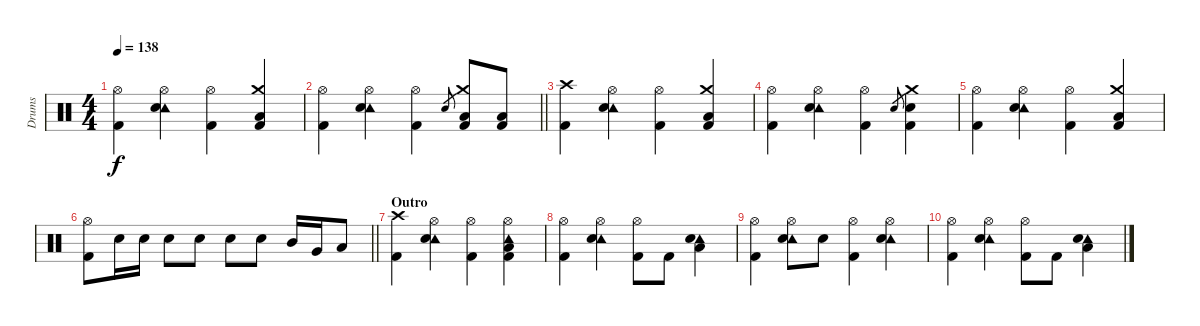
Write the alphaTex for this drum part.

\track ("Drums" "Drums") {instrument percussion}
\staff {score}
\articulation defaults
\ts (4 4)
\tempo 138
\clef neutral
\ks c
("Hi-Hat (open)" "Kick (hit) 2").4{dy f} ("Tambourine (hit)" "Hi-Hat (open)" "Snare (hit) 2").4 ("Hi-Hat (open)" "Kick (hit) 2").4 ("Crash medium (hit)" "Low Tom (hit)" "Kick (hit) 2").4 |
\barLineRight lightlight
("Hi-Hat (open)" "Kick (hit) 2").4 ("Tambourine (hit)" "Hi-Hat (open)" "Snare (hit) 2").4 ("Hi-Hat (open)" "Kick (hit) 2").4 "Snare (hit) 2".8{gr} ("Crash medium (hit)" "Low Tom (hit)" "Kick (hit) 2").8 ("Low Tom (hit)" "Kick (hit) 2").8 |
("Crash high (hit)" "Kick (hit) 2").4 ("Tambourine (hit)" "Hi-Hat (open)" "Snare (hit) 2").4 ("Hi-Hat (open)" "Kick (hit) 2").4 ("Crash medium (hit)" "Low Tom (hit)" "Kick (hit) 2").4 |
("Hi-Hat (open)" "Kick (hit) 2").4 ("Tambourine (hit)" "Hi-Hat (open)" "Snare (hit) 2").4 ("Hi-Hat (open)" "Kick (hit) 2").4 "Snare (hit) 2".8{gr} ("Crash medium (hit)" "Snare (hit) 2" "Kick (hit) 2").4 |
("Hi-Hat (open)" "Kick (hit) 2").4 ("Tambourine (hit)" "Hi-Hat (open)" "Snare (hit) 2").4 ("Hi-Hat (open)" "Kick (hit) 2").4 ("Crash medium (hit)" "Low Tom (hit)" "Kick (hit) 2").4 |
\barLineRight lightlight
("Hi-Hat (open)" "Kick (hit) 2").8 "Snare (hit) 2".16 "Snare (hit) 2".16 "Snare (hit) 2".8 "Snare (hit) 2".8 "Snare (hit) 2".8 "Snare (hit) 2".8 "Mid Tom (hit)".16 "Very Low Tom (hit)".16 "Low Tom (hit)".8 |
\section ("" "Outro")
("Crash high (hit)" "Kick (hit) 2").4{volume 2} ("Tambourine (hit)" "Hi-Hat (open)" "Snare (hit) 2").4 ("Hi-Hat (open)" "Kick (hit) 2").4 ("Tambourine (hit)" "Hi-Hat (open)" "Low Tom (hit)" "Kick (hit) 2").4 |
("Hi-Hat (open)" "Kick (hit) 2").4 ("Tambourine (hit)" "Hi-Hat (open)" "Snare (hit) 2").4 ("Hi-Hat (open)" "Kick (hit) 2").8 "Kick (hit) 2".8 ("Tambourine (hit)" "Snare (hit) 2" "Low Tom (hit)").4 |
("Hi-Hat (open)" "Kick (hit) 2").4 ("Tambourine (hit)" "Hi-Hat (open)" "Snare (hit) 2").8 "Snare (hit) 2".8 ("Hi-Hat (open)" "Kick (hit) 2").4 ("Tambourine (hit)" "Hi-Hat (open)" "Snare (hit) 2").4 |
("Hi-Hat (open)" "Kick (hit) 2").4 ("Tambourine (hit)" "Hi-Hat (open)" "Snare (hit) 2").4 ("Hi-Hat (open)" "Kick (hit) 2").8 "Kick (hit) 2".8 ("Tambourine (hit)" "Snare (hit) 2" "Low Tom (hit)").4
